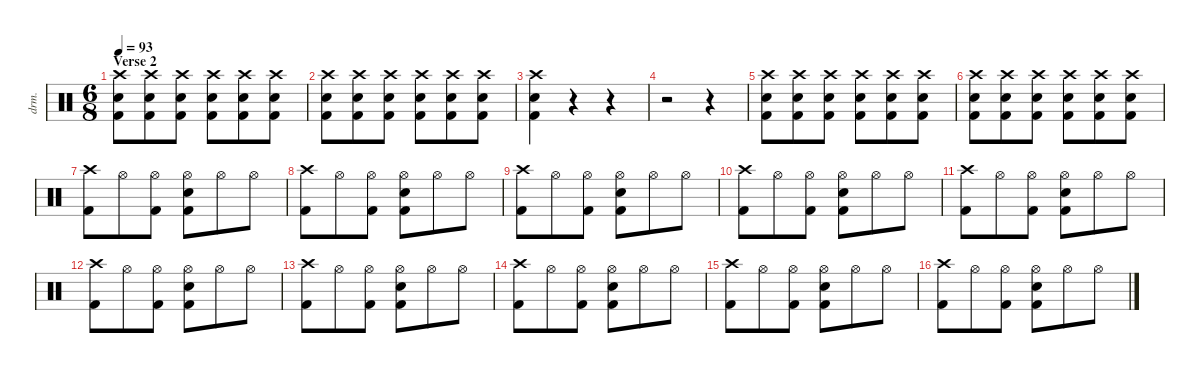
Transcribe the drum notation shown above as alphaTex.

\defaultSystemsLayout 4
\hideDynamics
\bracketExtendMode nobrackets
\otherSystemsTrackNameOrientation horizontal
\track ("Drums" "drm.") {instrument percussion}
\staff {score}
\articulation defaults
\ts (6 8)
\section ("" "Verse 2")
\tempo 93
\clef neutral
\ks c
("Crash high (hit)" "Snare (hit) 2" "Kick (hit) 2").8{dy f beam Down} ("Crash high (hit)" "Snare (hit) 2" "Kick (hit) 2").8{beam Down} ("Crash high (hit)" "Snare (hit) 2" "Kick (hit) 2").8{beam Down} ("Crash high (hit)" "Snare (hit) 2" "Kick (hit) 2").8{beam Down} ("Crash high (hit)" "Snare (hit) 2" "Kick (hit) 2").8{beam Down} ("Crash high (hit)" "Snare (hit) 2" "Kick (hit) 2").8{beam Down} |
("Crash high (hit)" "Snare (hit) 2" "Kick (hit) 2").8{beam Down} ("Crash high (hit)" "Snare (hit) 2" "Kick (hit) 2").8{beam Down} ("Crash high (hit)" "Snare (hit) 2" "Kick (hit) 2").8{beam Down} ("Crash high (hit)" "Snare (hit) 2" "Kick (hit) 2").8{beam Down} ("Crash high (hit)" "Snare (hit) 2" "Kick (hit) 2").8{beam Down} ("Crash high (hit)" "Snare (hit) 2" "Kick (hit) 2").8{beam Down} |
("Crash high (hit)" "Snare (hit) 2" "Kick (hit) 2").4{beam Down} r.4{beam Down} r.4{beam Down} |
r.2{beam Down} r.4{beam Down} |
("Crash high (hit)" "Snare (hit) 2" "Kick (hit) 2").8{beam Down} ("Crash high (hit)" "Snare (hit) 2" "Kick (hit) 2").8{beam Down} ("Crash high (hit)" "Snare (hit) 2" "Kick (hit) 2").8{beam Down} ("Crash high (hit)" "Snare (hit) 2" "Kick (hit) 2").8{beam Down} ("Crash high (hit)" "Snare (hit) 2" "Kick (hit) 2").8{beam Down} ("Crash high (hit)" "Snare (hit) 2" "Kick (hit) 2").8{beam Down} |
("Crash high (hit)" "Snare (hit) 2" "Kick (hit) 2").8{beam Down} ("Crash high (hit)" "Snare (hit) 2" "Kick (hit) 2").8{beam Down} ("Crash high (hit)" "Snare (hit) 2" "Kick (hit) 2").8{beam Down} ("Crash high (hit)" "Snare (hit) 2" "Kick (hit) 2").8{beam Down} ("Crash high (hit)" "Snare (hit) 2" "Kick (hit) 2").8{beam Down} ("Crash high (hit)" "Snare (hit) 2" "Kick (hit) 2").8{beam Down} |
("Crash high (hit)" "Kick (hit) 2").8{beam Down} "Hi-Hat (open)".8{beam Down} ("Hi-Hat (open)" "Kick (hit) 2").8{beam Down} ("Hi-Hat (open)" "Snare (hit) 2" "Kick (hit) 2").8{beam Down} "Hi-Hat (open)".8{beam Down} "Hi-Hat (open)".8{beam Down} |
("Crash high (hit)" "Kick (hit) 2").8{beam Down} "Hi-Hat (open)".8{beam Down} ("Hi-Hat (open)" "Kick (hit) 2").8{beam Down} ("Hi-Hat (open)" "Snare (hit) 2" "Kick (hit) 2").8{beam Down} "Hi-Hat (open)".8{beam Down} "Hi-Hat (open)".8{beam Down} |
("Crash high (hit)" "Kick (hit) 2").8{beam Down} "Hi-Hat (open)".8{beam Down} ("Hi-Hat (open)" "Kick (hit) 2").8{beam Down} ("Hi-Hat (open)" "Snare (hit) 2" "Kick (hit) 2").8{beam Down} "Hi-Hat (open)".8{beam Down} "Hi-Hat (open)".8{beam Down} |
("Crash high (hit)" "Kick (hit) 2").8{beam Down} "Hi-Hat (open)".8{beam Down} ("Hi-Hat (open)" "Kick (hit) 2").8{beam Down} ("Hi-Hat (open)" "Snare (hit) 2" "Kick (hit) 2").8{beam Down} "Hi-Hat (open)".8{beam Down} "Hi-Hat (open)".8{beam Down} |
("Crash high (hit)" "Kick (hit) 2").8{beam Down} "Hi-Hat (open)".8{beam Down} ("Hi-Hat (open)" "Kick (hit) 2").8{beam Down} ("Hi-Hat (open)" "Snare (hit) 2" "Kick (hit) 2").8{beam Down} "Hi-Hat (open)".8{beam Down} "Hi-Hat (open)".8{beam Down} |
("Crash high (hit)" "Kick (hit) 2").8{beam Down} "Hi-Hat (open)".8{beam Down} ("Hi-Hat (open)" "Kick (hit) 2").8{beam Down} ("Hi-Hat (open)" "Snare (hit) 2" "Kick (hit) 2").8{beam Down} "Hi-Hat (open)".8{beam Down} "Hi-Hat (open)".8{beam Down} |
("Crash high (hit)" "Kick (hit) 2").8{beam Down} "Hi-Hat (open)".8{beam Down} ("Hi-Hat (open)" "Kick (hit) 2").8{beam Down} ("Hi-Hat (open)" "Snare (hit) 2" "Kick (hit) 2").8{beam Down} "Hi-Hat (open)".8{beam Down} "Hi-Hat (open)".8{beam Down} |
("Crash high (hit)" "Kick (hit) 2").8{beam Down} "Hi-Hat (open)".8{beam Down} ("Hi-Hat (open)" "Kick (hit) 2").8{beam Down} ("Hi-Hat (open)" "Snare (hit) 2" "Kick (hit) 2").8{beam Down} "Hi-Hat (open)".8{beam Down} "Hi-Hat (open)".8{beam Down} |
("Crash high (hit)" "Kick (hit) 2").8{beam Down} "Hi-Hat (open)".8{beam Down} ("Hi-Hat (open)" "Kick (hit) 2").8{beam Down} ("Hi-Hat (open)" "Snare (hit) 2" "Kick (hit) 2").8{beam Down} "Hi-Hat (open)".8{beam Down} "Hi-Hat (open)".8{beam Down} |
("Crash high (hit)" "Kick (hit) 2").8{beam Down} "Hi-Hat (open)".8{beam Down} ("Hi-Hat (open)" "Kick (hit) 2").8{beam Down} ("Hi-Hat (open)" "Snare (hit) 2" "Kick (hit) 2").8{beam Down} "Hi-Hat (open)".8{beam Down} "Hi-Hat (open)".8{beam Down}
